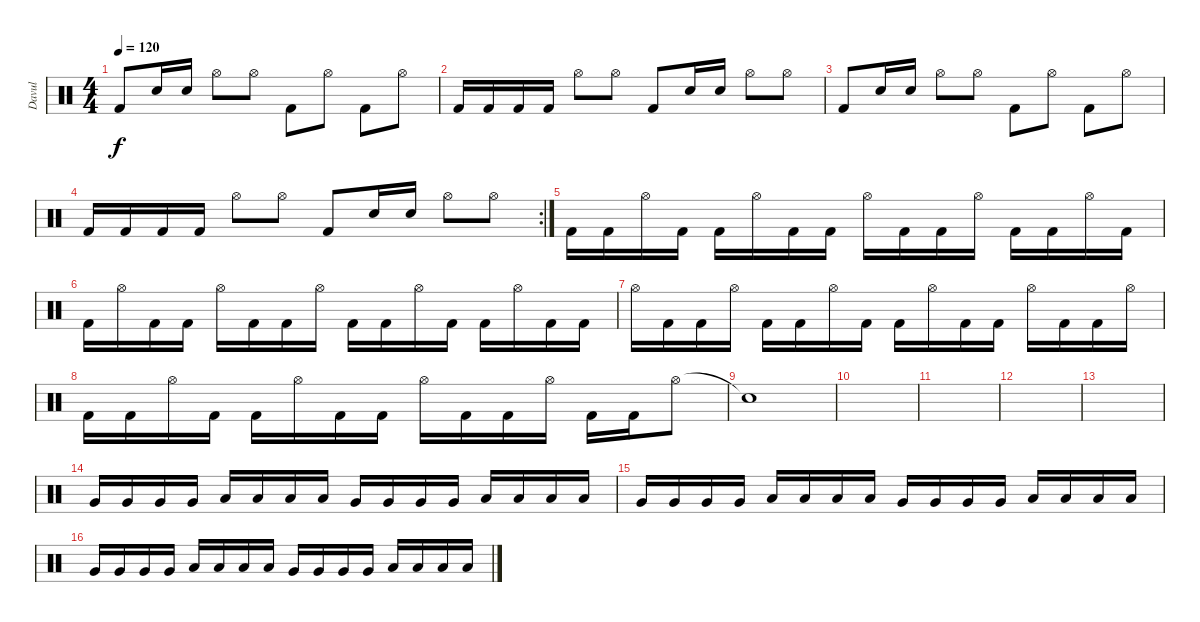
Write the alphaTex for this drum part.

\track ("Davul" "Davul") {instrument percussion}
\staff {score}
\articulation defaults
\ts (4 4)
\tempo 120
\clef neutral
\ks c "Kick (hit) 2".8{dy f} "Snare (hit) 2".16 "Snare (hit) 2".16 "Hi-Hat (open)".8 "Hi-Hat (open)".8 "Kick (hit) 2".8 "Hi-Hat (open)".8 "Kick (hit) 2".8 "Hi-Hat (open)".8
|
"Kick (hit) 2".16 "Kick (hit) 2".16 "Kick (hit) 2".16 "Kick (hit) 2".16 "Hi-Hat (open)".8 "Hi-Hat (open)".8 "Kick (hit) 2".8 "Snare (hit) 2".16 "Snare (hit) 2".16 "Hi-Hat (open)".8 "Hi-Hat (open)".8 |
"Kick (hit) 2".8 "Snare (hit) 2".16 "Snare (hit) 2".16 "Hi-Hat (open)".8 "Hi-Hat (open)".8 "Kick (hit) 2".8 "Hi-Hat (open)".8 "Kick (hit) 2".8 "Hi-Hat (open)".8 |
\rc 2 "Kick (hit) 2".16 "Kick (hit) 2".16 "Kick (hit) 2".16 "Kick (hit) 2".16 "Hi-Hat (open)".8 "Hi-Hat (open)".8 "Kick (hit) 2".8 "Snare (hit) 2".16 "Snare (hit) 2".16 "Hi-Hat (open)".8 "Hi-Hat (open)".8
|
"Kick (hit) 2".16 "Kick (hit) 2".16 "Hi-Hat (open)".16 "Kick (hit) 2".16 "Kick (hit) 2".16 "Hi-Hat (open)".16 "Kick (hit) 2".16 "Kick (hit) 2".16 "Hi-Hat (open)".16 "Kick (hit) 2".16 "Kick (hit) 2".16 "Hi-Hat (open)".16 "Kick (hit) 2".16 "Kick (hit) 2".16 "Hi-Hat (open)".16 "Kick (hit) 2".16 |
"Kick (hit) 2".16 "Hi-Hat (open)".16 "Kick (hit) 2".16 "Kick (hit) 2".16 "Hi-Hat (open)".16 "Kick (hit) 2".16 "Kick (hit) 2".16 "Hi-Hat (open)".16 "Kick (hit) 2".16 "Kick (hit) 2".16 "Hi-Hat (open)".16 "Kick (hit) 2".16 "Kick (hit) 2".16 "Hi-Hat (open)".16 "Kick (hit) 2".16 "Kick (hit) 2".16 |
"Hi-Hat (open)".16 "Kick (hit) 2".16 "Kick (hit) 2".16 "Hi-Hat (open)".16 "Kick (hit) 2".16 "Kick (hit) 2".16 "Hi-Hat (open)".16 "Kick (hit) 2".16 "Kick (hit) 2".16 "Hi-Hat (open)".16 "Kick (hit) 2".16 "Kick (hit) 2".16 "Hi-Hat (open)".16 "Kick (hit) 2".16 "Kick (hit) 2".16 "Hi-Hat (open)".16 |
"Kick (hit) 2".16 "Kick (hit) 2".16 "Hi-Hat (open)".16 "Kick (hit) 2".16 "Kick (hit) 2".16 "Hi-Hat (open)".16 "Kick (hit) 2".16 "Kick (hit) 2".16 "Hi-Hat (open)".16 "Kick (hit) 2".16 "Kick (hit) 2".16 "Hi-Hat (open)".16 "Kick (hit) 2".16 "Kick (hit) 2".16 "Hi-Hat (open)".8 |
"Snare (hit)"{t}.1 |
|
|
|
|
"Very Low Tom (hit)".16 "Very Low Tom (hit)".16 "Very Low Tom (hit)".16 "Very Low Tom (hit)".16 "Low Floor Tom (hit)".16 "Low Floor Tom (hit)".16 "Low Floor Tom (hit)".16 "Low Floor Tom (hit)".16 "Very Low Tom (hit)".16 "Very Low Tom (hit)".16 "Very Low Tom (hit)".16 "Very Low Tom (hit)".16 "Low Floor Tom (hit)".16 "Low Floor Tom (hit)".16 "Low Floor Tom (hit)".16 "Low Floor Tom (hit)".16 |
"Very Low Tom (hit)".16 "Very Low Tom (hit)".16 "Very Low Tom (hit)".16 "Very Low Tom (hit)".16 "Low Floor Tom (hit)".16 "Low Floor Tom (hit)".16 "Low Floor Tom (hit)".16 "Low Floor Tom (hit)".16 "Very Low Tom (hit)".16 "Very Low Tom (hit)".16 "Very Low Tom (hit)".16 "Very Low Tom (hit)".16 "Low Floor Tom (hit)".16 "Low Floor Tom (hit)".16 "Low Floor Tom (hit)".16 "Low Floor Tom (hit)".16 |
"Very Low Tom (hit)".16 "Very Low Tom (hit)".16 "Very Low Tom (hit)".16 "Very Low Tom (hit)".16 "Low Floor Tom (hit)".16 "Low Floor Tom (hit)".16 "Low Floor Tom (hit)".16 "Low Floor Tom (hit)".16 "Very Low Tom (hit)".16 "Very Low Tom (hit)".16 "Very Low Tom (hit)".16 "Very Low Tom (hit)".16 "Low Floor Tom (hit)".16 "Low Floor Tom (hit)".16 "Low Floor Tom (hit)".16 "Low Floor Tom (hit)".16
